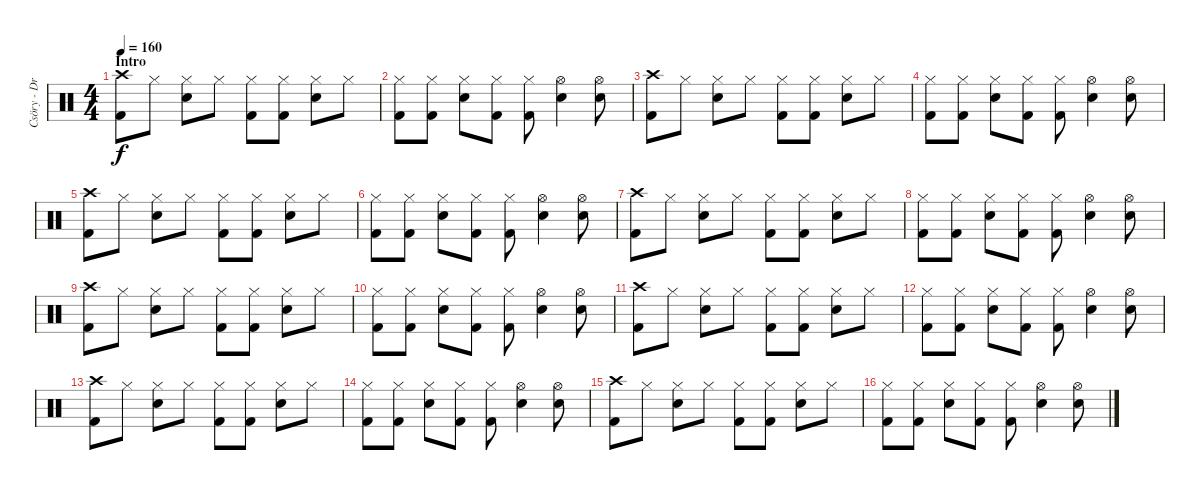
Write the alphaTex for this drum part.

\track ("Csöry - DrumZ" "Csöry - Dr") {instrument percussion}
\staff {score}
\articulation defaults
\ts (4 4)
\section ("" "Intro")
\tempo 160
\clef neutral
\ks c
("Crash high (hit)" "Kick (hit) 2").8{dy f} "Hi-Hat (closed)".8 ("Hi-Hat (closed)" "Snare (hit) 2").8 "Hi-Hat (closed)".8 ("Hi-Hat (closed)" "Kick (hit) 2").8 ("Hi-Hat (closed)" "Kick (hit) 2").8 ("Hi-Hat (closed)" "Snare (hit) 2").8 "Hi-Hat (closed)".8 |
("Hi-Hat (closed)" "Kick (hit) 2").8 ("Hi-Hat (closed)" "Kick (hit) 2").8 ("Hi-Hat (closed)" "Snare (hit) 2").8 ("Hi-Hat (closed)" "Kick (hit) 2").8 ("Hi-Hat (closed)" "Kick (hit) 2").8 ("Hi-Hat (open)" "Snare (hit) 2").4 ("Hi-Hat (open)" "Snare (hit) 2").8 |
("Crash high (hit)" "Kick (hit) 2").8 "Hi-Hat (closed)".8 ("Hi-Hat (closed)" "Snare (hit) 2").8 "Hi-Hat (closed)".8 ("Hi-Hat (closed)" "Kick (hit) 2").8 ("Hi-Hat (closed)" "Kick (hit) 2").8 ("Hi-Hat (closed)" "Snare (hit) 2").8 "Hi-Hat (closed)".8 |
("Hi-Hat (closed)" "Kick (hit) 2").8 ("Hi-Hat (closed)" "Kick (hit) 2").8 ("Hi-Hat (closed)" "Snare (hit) 2").8 ("Hi-Hat (closed)" "Kick (hit) 2").8 ("Hi-Hat (closed)" "Kick (hit) 2").8 ("Hi-Hat (open)" "Snare (hit) 2").4 ("Hi-Hat (open)" "Snare (hit) 2").8 |
("Crash high (hit)" "Kick (hit) 2").8 "Hi-Hat (closed)".8 ("Hi-Hat (closed)" "Snare (hit) 2").8 "Hi-Hat (closed)".8 ("Hi-Hat (closed)" "Kick (hit) 2").8 ("Hi-Hat (closed)" "Kick (hit) 2").8 ("Hi-Hat (closed)" "Snare (hit) 2").8 "Hi-Hat (closed)".8 |
("Hi-Hat (closed)" "Kick (hit) 2").8 ("Hi-Hat (closed)" "Kick (hit) 2").8 ("Hi-Hat (closed)" "Snare (hit) 2").8 ("Hi-Hat (closed)" "Kick (hit) 2").8 ("Hi-Hat (closed)" "Kick (hit) 2").8 ("Hi-Hat (open)" "Snare (hit) 2").4 ("Hi-Hat (open)" "Snare (hit) 2").8 |
("Crash high (hit)" "Kick (hit) 2").8 "Hi-Hat (closed)".8 ("Hi-Hat (closed)" "Snare (hit) 2").8 "Hi-Hat (closed)".8 ("Hi-Hat (closed)" "Kick (hit) 2").8 ("Hi-Hat (closed)" "Kick (hit) 2").8 ("Hi-Hat (closed)" "Snare (hit) 2").8 "Hi-Hat (closed)".8 |
("Hi-Hat (closed)" "Kick (hit) 2").8 ("Hi-Hat (closed)" "Kick (hit) 2").8 ("Hi-Hat (closed)" "Snare (hit) 2").8 ("Hi-Hat (closed)" "Kick (hit) 2").8 ("Hi-Hat (closed)" "Kick (hit) 2").8 ("Hi-Hat (open)" "Snare (hit) 2").4 ("Hi-Hat (open)" "Snare (hit) 2").8 |
("Crash high (hit)" "Kick (hit) 2").8 "Hi-Hat (closed)".8 ("Hi-Hat (closed)" "Snare (hit) 2").8 "Hi-Hat (closed)".8 ("Hi-Hat (closed)" "Kick (hit) 2").8 ("Hi-Hat (closed)" "Kick (hit) 2").8 ("Hi-Hat (closed)" "Snare (hit) 2").8 "Hi-Hat (closed)".8 |
("Hi-Hat (closed)" "Kick (hit) 2").8 ("Hi-Hat (closed)" "Kick (hit) 2").8 ("Hi-Hat (closed)" "Snare (hit) 2").8 ("Hi-Hat (closed)" "Kick (hit) 2").8 ("Hi-Hat (closed)" "Kick (hit) 2").8 ("Hi-Hat (open)" "Snare (hit) 2").4 ("Hi-Hat (open)" "Snare (hit) 2").8 |
("Crash high (hit)" "Kick (hit) 2").8 "Hi-Hat (closed)".8 ("Hi-Hat (closed)" "Snare (hit) 2").8 "Hi-Hat (closed)".8 ("Hi-Hat (closed)" "Kick (hit) 2").8 ("Hi-Hat (closed)" "Kick (hit) 2").8 ("Hi-Hat (closed)" "Snare (hit) 2").8 "Hi-Hat (closed)".8 |
("Hi-Hat (closed)" "Kick (hit) 2").8 ("Hi-Hat (closed)" "Kick (hit) 2").8 ("Hi-Hat (closed)" "Snare (hit) 2").8 ("Hi-Hat (closed)" "Kick (hit) 2").8 ("Hi-Hat (closed)" "Kick (hit) 2").8 ("Hi-Hat (open)" "Snare (hit) 2").4 ("Hi-Hat (open)" "Snare (hit) 2").8 |
("Crash high (hit)" "Kick (hit) 2").8 "Hi-Hat (closed)".8 ("Hi-Hat (closed)" "Snare (hit) 2").8 "Hi-Hat (closed)".8 ("Hi-Hat (closed)" "Kick (hit) 2").8 ("Hi-Hat (closed)" "Kick (hit) 2").8 ("Hi-Hat (closed)" "Snare (hit) 2").8 "Hi-Hat (closed)".8 |
("Hi-Hat (closed)" "Kick (hit) 2").8 ("Hi-Hat (closed)" "Kick (hit) 2").8 ("Hi-Hat (closed)" "Snare (hit) 2").8 ("Hi-Hat (closed)" "Kick (hit) 2").8 ("Hi-Hat (closed)" "Kick (hit) 2").8 ("Hi-Hat (open)" "Snare (hit) 2").4 ("Hi-Hat (open)" "Snare (hit) 2").8 |
("Crash high (hit)" "Kick (hit) 2").8 "Hi-Hat (closed)".8 ("Hi-Hat (closed)" "Snare (hit) 2").8 "Hi-Hat (closed)".8 ("Hi-Hat (closed)" "Kick (hit) 2").8 ("Hi-Hat (closed)" "Kick (hit) 2").8 ("Hi-Hat (closed)" "Snare (hit) 2").8 "Hi-Hat (closed)".8 |
("Hi-Hat (closed)" "Kick (hit) 2").8 ("Hi-Hat (closed)" "Kick (hit) 2").8 ("Hi-Hat (closed)" "Snare (hit) 2").8 ("Hi-Hat (closed)" "Kick (hit) 2").8 ("Hi-Hat (closed)" "Kick (hit) 2").8 ("Hi-Hat (open)" "Snare (hit) 2").4 ("Hi-Hat (open)" "Snare (hit) 2").8
